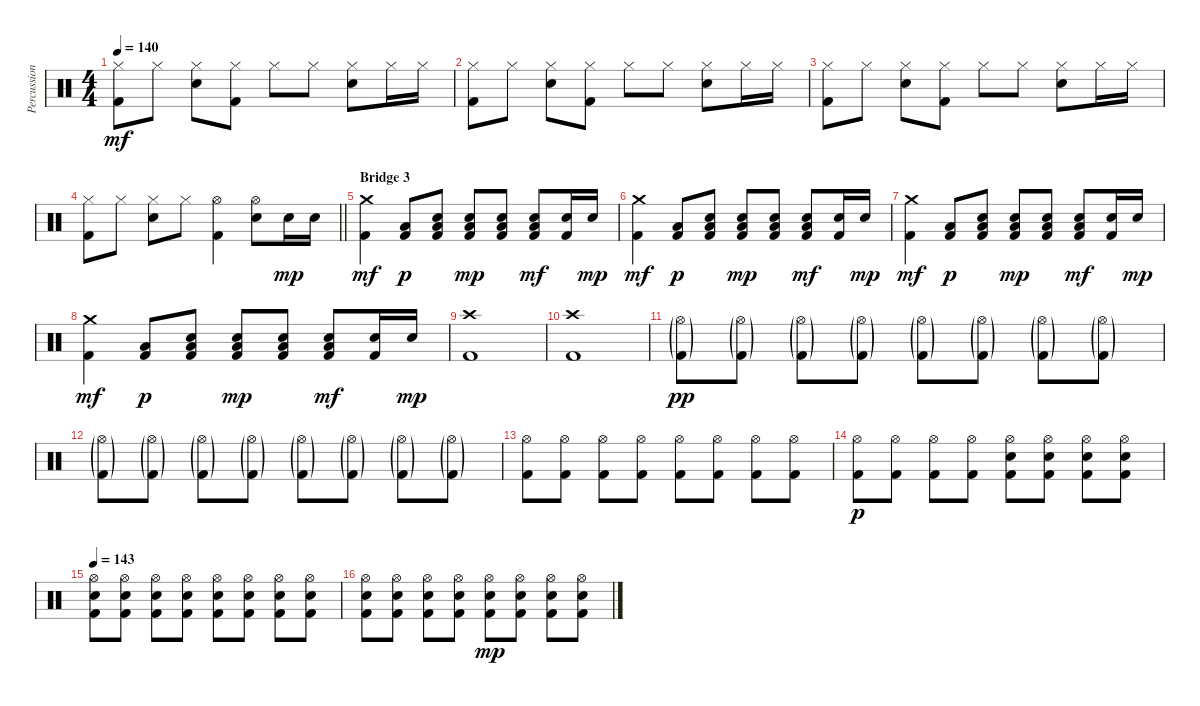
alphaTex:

\track ("Percussion" "Percussion") {instrument percussion}
\staff {score}
\articulation defaults
\ts (4 4)
\tempo 140
\clef neutral
\ks c
("Hi-Hat (closed)" "Kick (hit) 2").8{dy mf} "Hi-Hat (closed)".8 ("Hi-Hat (closed)" "Snare (hit) 2").8 ("Hi-Hat (closed)" "Kick (hit) 2").8 "Hi-Hat (closed)".8 "Hi-Hat (closed)".8 ("Hi-Hat (closed)" "Snare (hit) 2").8 "Hi-Hat (closed)".16 "Hi-Hat (closed)".16 |
("Hi-Hat (closed)" "Kick (hit) 2").8 "Hi-Hat (closed)".8 ("Hi-Hat (closed)" "Snare (hit) 2").8 ("Hi-Hat (closed)" "Kick (hit) 2").8 "Hi-Hat (closed)".8 "Hi-Hat (closed)".8 ("Hi-Hat (closed)" "Snare (hit) 2").8 "Hi-Hat (closed)".16 "Hi-Hat (closed)".16 |
("Hi-Hat (closed)" "Kick (hit) 2").8 "Hi-Hat (closed)".8 ("Hi-Hat (closed)" "Snare (hit) 2").8 ("Hi-Hat (closed)" "Kick (hit) 2").8 "Hi-Hat (closed)".8 "Hi-Hat (closed)".8 ("Hi-Hat (closed)" "Snare (hit) 2").8 "Hi-Hat (closed)".16 "Hi-Hat (closed)".16 |
\barLineRight lightlight
("Hi-Hat (closed)" "Kick (hit) 2").8 "Hi-Hat (closed)".8 ("Hi-Hat (closed)" "Snare (hit) 2").8 "Hi-Hat (closed)".8 ("Hi-Hat (open)" "Kick (hit) 2").4 ("Hi-Hat (open)" "Snare (hit) 2").8 "Snare (hit) 2".16{dy mp} "Snare (hit) 2".16 |
\section ("" "Bridge 3")
("Crash medium (hit)" "Kick (hit) 2").4{dy mf} ("Low Floor Tom (hit)" "Kick (hit) 2").8{dy p} ("Low Floor Tom (hit)" "Snare (hit) 2" "Kick (hit) 2").8 ("Low Floor Tom (hit)" "Snare (hit) 2" "Kick (hit) 2").8{dy mp} ("Low Floor Tom (hit)" "Snare (hit) 2" "Kick (hit) 2").8 ("Low Floor Tom (hit)" "Snare (hit) 2" "Kick (hit) 2").8{dy mf} ("Snare (hit) 2" "Kick (hit) 2").16 "Snare (hit) 2".16{dy mp} |
("Crash medium (hit)" "Kick (hit) 2").4{dy mf} ("Low Floor Tom (hit)" "Kick (hit) 2").8{dy p} ("Low Floor Tom (hit)" "Snare (hit) 2" "Kick (hit) 2").8 ("Low Floor Tom (hit)" "Snare (hit) 2" "Kick (hit) 2").8{dy mp} ("Low Floor Tom (hit)" "Snare (hit) 2" "Kick (hit) 2").8 ("Low Floor Tom (hit)" "Snare (hit) 2" "Kick (hit) 2").8{dy mf} ("Snare (hit) 2" "Kick (hit) 2").16 "Snare (hit) 2".16{dy mp} |
("Crash medium (hit)" "Kick (hit) 2").4{dy mf} ("Low Floor Tom (hit)" "Kick (hit) 2").8{dy p} ("Low Floor Tom (hit)" "Snare (hit) 2" "Kick (hit) 2").8 ("Low Floor Tom (hit)" "Snare (hit) 2" "Kick (hit) 2").8{dy mp} ("Low Floor Tom (hit)" "Snare (hit) 2" "Kick (hit) 2").8 ("Low Floor Tom (hit)" "Snare (hit) 2" "Kick (hit) 2").8{dy mf} ("Snare (hit) 2" "Kick (hit) 2").16 "Snare (hit) 2".16{dy mp} |
("Crash medium (hit)" "Kick (hit) 2").4{dy mf} ("Low Floor Tom (hit)" "Kick (hit) 2").8{dy p} ("Low Floor Tom (hit)" "Snare (hit) 2" "Kick (hit) 2").8 ("Low Floor Tom (hit)" "Snare (hit) 2" "Kick (hit) 2").8{dy mp} ("Low Floor Tom (hit)" "Snare (hit) 2" "Kick (hit) 2").8 ("Low Floor Tom (hit)" "Snare (hit) 2" "Kick (hit) 2").8{dy mf} ("Snare (hit) 2" "Kick (hit) 2").16 "Snare (hit) 2".16{dy mp} |
("Crash high (hit)" "Kick (hit) 2").1 |
("Crash high (hit)" "Kick (hit) 2").1 |
("Hi-Hat (open)"{g} "Kick (hit) 2"{g}).8{dy pp} ("Hi-Hat (open)"{g} "Kick (hit) 2"{g}).8 ("Hi-Hat (open)"{g} "Kick (hit) 2"{g}).8 ("Hi-Hat (open)"{g} "Kick (hit) 2"{g}).8 ("Hi-Hat (open)"{g} "Kick (hit) 2"{g}).8 ("Hi-Hat (open)"{g} "Kick (hit) 2"{g}).8 ("Hi-Hat (open)"{g} "Kick (hit) 2"{g}).8 ("Hi-Hat (open)"{g} "Kick (hit) 2"{g}).8 |
("Hi-Hat (open)"{g} "Kick (hit) 2"{g}).8 ("Hi-Hat (open)"{g} "Kick (hit) 2"{g}).8 ("Hi-Hat (open)"{g} "Kick (hit) 2"{g}).8 ("Hi-Hat (open)"{g} "Kick (hit) 2"{g}).8 ("Hi-Hat (open)"{g} "Kick (hit) 2"{g}).8 ("Hi-Hat (open)"{g} "Kick (hit) 2"{g}).8 ("Hi-Hat (open)"{g} "Kick (hit) 2"{g}).8 ("Hi-Hat (open)"{g} "Kick (hit) 2"{g}).8 |
("Hi-Hat (open)" "Kick (hit) 2").8 ("Hi-Hat (open)" "Kick (hit) 2").8 ("Hi-Hat (open)" "Kick (hit) 2").8 ("Hi-Hat (open)" "Kick (hit) 2").8 ("Hi-Hat (open)" "Kick (hit) 2").8 ("Hi-Hat (open)" "Kick (hit) 2").8 ("Hi-Hat (open)" "Kick (hit) 2").8 ("Hi-Hat (open)" "Kick (hit) 2").8 |
("Hi-Hat (open)" "Kick (hit) 2").8{dy p} ("Hi-Hat (open)" "Kick (hit) 2").8 ("Hi-Hat (open)" "Kick (hit) 2").8 ("Hi-Hat (open)" "Kick (hit) 2").8 ("Hi-Hat (open)" "Snare (hit) 2" "Kick (hit) 2").8 ("Hi-Hat (open)" "Snare (hit) 2" "Kick (hit) 2").8 ("Hi-Hat (open)" "Snare (hit) 2" "Kick (hit) 2").8 ("Hi-Hat (open)" "Snare (hit) 2" "Kick (hit) 2").8 |
\tempo 143
("Hi-Hat (open)" "Snare (hit) 2" "Kick (hit) 2").8 ("Hi-Hat (open)" "Snare (hit) 2" "Kick (hit) 2").8 ("Hi-Hat (open)" "Snare (hit) 2" "Kick (hit) 2").8 ("Hi-Hat (open)" "Snare (hit) 2" "Kick (hit) 2").8 ("Hi-Hat (open)" "Snare (hit) 2" "Kick (hit) 2").8 ("Hi-Hat (open)" "Snare (hit) 2" "Kick (hit) 2").8 ("Hi-Hat (open)" "Snare (hit) 2" "Kick (hit) 2").8 ("Hi-Hat (open)" "Snare (hit) 2" "Kick (hit) 2").8 |
("Hi-Hat (open)" "Snare (hit) 2" "Kick (hit) 2").8 ("Hi-Hat (open)" "Snare (hit) 2" "Kick (hit) 2").8 ("Hi-Hat (open)" "Snare (hit) 2" "Kick (hit) 2").8 ("Hi-Hat (open)" "Snare (hit) 2" "Kick (hit) 2").8 ("Hi-Hat (open)" "Snare (hit) 2" "Kick (hit) 2").8{dy mp} ("Hi-Hat (open)" "Snare (hit) 2" "Kick (hit) 2").8 ("Hi-Hat (open)" "Snare (hit) 2" "Kick (hit) 2").8 ("Hi-Hat (open)" "Snare (hit) 2" "Kick (hit) 2").8
